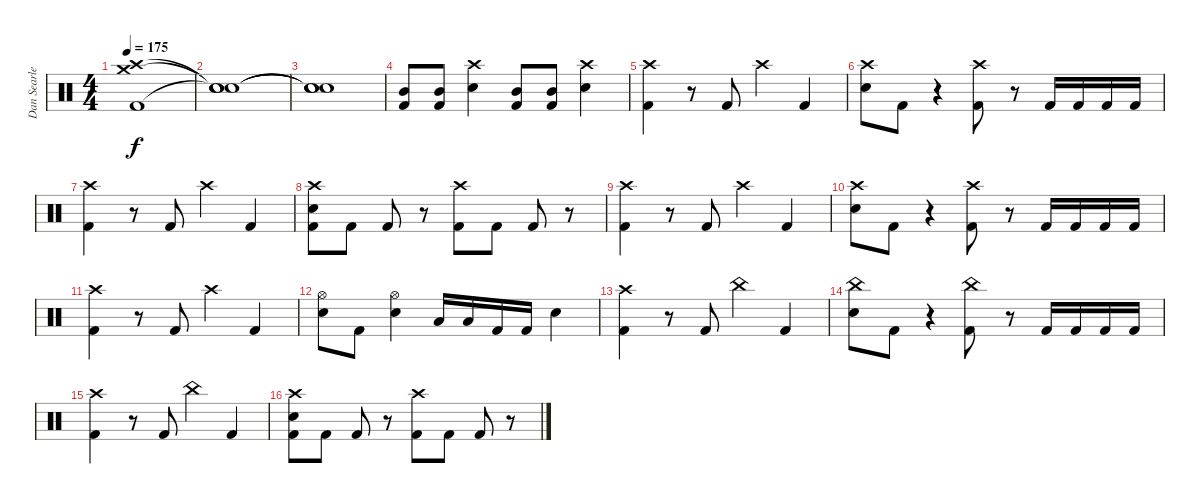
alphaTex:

\track ("Dan Searle" "Dan Searle") {instrument percussion}
\staff {score}
\articulation defaults
\ts (4 4)
\tempo 175
\clef neutral
\ks c
("Crash high (hit)" "Crash medium (hit)" "Kick (hit) 2").1{dy f} |
("Snare (hit)"{t} "Snare (hit)"{t} "Snare (hit)"{t}).1 |
("Snare (hit)"{t} "Snare (hit)"{t} "Snare (hit)"{t}).1 |
("Mid Tom (hit)" "Kick (hit) 2").8 ("Mid Tom (hit)" "Kick (hit) 2").8 ("Crash high (hit)" "Snare (hit) 2").4 ("Mid Tom (hit)" "Kick (hit) 2").8 ("Mid Tom (hit)" "Kick (hit) 2").8 ("Crash high (hit)" "Snare (hit) 2").4 |
("Crash high (hit)" "Kick (hit) 2").4 r.8 "Kick (hit) 2".8 "Crash high (hit)".4 "Kick (hit) 2".4 |
("Crash high (hit)" "Snare (hit) 2").8 "Kick (hit) 2".8 r.4 ("Crash high (hit)" "Kick (hit) 2").8 r.8 "Kick (hit) 2".16 "Kick (hit) 2".16 "Kick (hit) 2".16 "Kick (hit) 2".16 |
("Crash high (hit)" "Kick (hit) 2").4 r.8 "Kick (hit) 2".8 "Crash high (hit)".4 "Kick (hit) 2".4 |
("Crash high (hit)" "Snare (hit) 2" "Kick (hit) 2").8 "Kick (hit) 2".8 "Kick (hit) 2".8 r.8 ("Crash high (hit)" "Kick (hit) 2").8 "Kick (hit) 2".8 "Kick (hit) 2".8 r.8 |
("Crash high (hit)" "Kick (hit) 2").4 r.8 "Kick (hit) 2".8 "Crash high (hit)".4 "Kick (hit) 2".4 |
("Crash high (hit)" "Snare (hit) 2").8 "Kick (hit) 2".8 r.4 ("Crash high (hit)" "Kick (hit) 2").8 r.8 "Kick (hit) 2".16 "Kick (hit) 2".16 "Kick (hit) 2".16 "Kick (hit) 2".16 |
("Crash high (hit)" "Kick (hit) 2").4 r.8 "Kick (hit) 2".8 "Crash high (hit)".4 "Kick (hit) 2".4 |
("Hi-Hat (open)" "Snare (hit) 2").8 "Kick (hit) 2".8 ("Hi-Hat (open)" "Snare (hit) 2").4 "Low Floor Tom (hit)".16 "Low Floor Tom (hit)".16 "Kick (hit) 2".16 "Kick (hit) 2".16 "Snare (hit) 2".4 |
("Crash high (hit)" "Kick (hit) 2").4 r.8 "Kick (hit) 2".8 "China (hit)".4 "Kick (hit) 2".4 |
("China (hit)" "Snare (hit) 2").8 "Kick (hit) 2".8 r.4 ("China (hit)" "Kick (hit) 2").8 r.8 "Kick (hit) 2".16 "Kick (hit) 2".16 "Kick (hit) 2".16 "Kick (hit) 2".16 |
("Crash high (hit)" "Kick (hit) 2").4 r.8 "Kick (hit) 2".8 "China (hit)".4 "Kick (hit) 2".4 |
("Crash high (hit)" "Snare (hit) 2" "Kick (hit) 2").8 "Kick (hit) 2".8 "Kick (hit) 2".8 r.8 ("Crash high (hit)" "Kick (hit) 2").8 "Kick (hit) 2".8 "Kick (hit) 2".8 r.8
